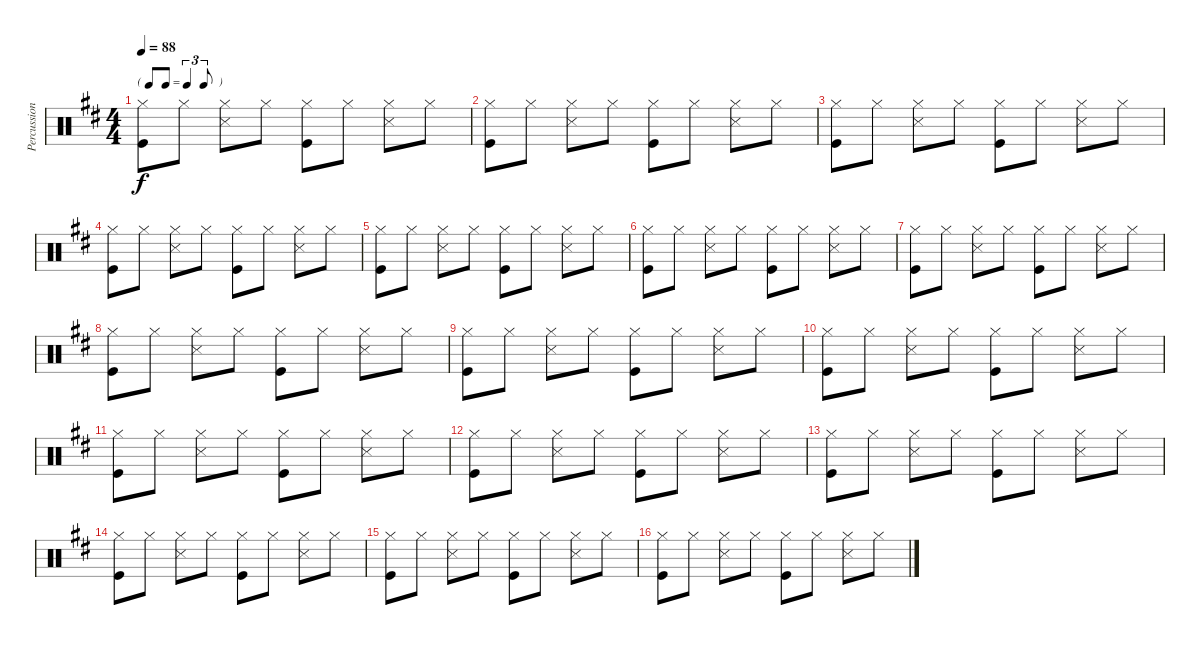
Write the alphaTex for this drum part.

\track ("Percussion" "Percussion") {instrument percussion}
\staff {score}
\articulation defaults
\ts (4 4)
\tf triplet8th
\tempo 88
\clef neutral
\ks d
("Hi-Hat (closed)" "Kick (hit)").8{dy f} "Hi-Hat (closed)".8 ("Hi-Hat (closed)" "Snare (side stick) 3").8 "Hi-Hat (closed)".8 ("Hi-Hat (closed)" "Kick (hit)").8 "Hi-Hat (closed)".8 ("Hi-Hat (closed)" "Snare (side stick) 3").8 "Hi-Hat (closed)".8 |
("Hi-Hat (closed)" "Kick (hit)").8 "Hi-Hat (closed)".8 ("Hi-Hat (closed)" "Snare (side stick) 3").8 "Hi-Hat (closed)".8 ("Hi-Hat (closed)" "Kick (hit)").8 "Hi-Hat (closed)".8 ("Hi-Hat (closed)" "Snare (side stick) 3").8 "Hi-Hat (closed)".8 |
("Hi-Hat (closed)" "Kick (hit)").8 "Hi-Hat (closed)".8 ("Hi-Hat (closed)" "Snare (side stick) 3").8 "Hi-Hat (closed)".8 ("Hi-Hat (closed)" "Kick (hit)").8 "Hi-Hat (closed)".8 ("Hi-Hat (closed)" "Snare (side stick) 3").8 "Hi-Hat (closed)".8 |
("Hi-Hat (closed)" "Kick (hit)").8 "Hi-Hat (closed)".8 ("Hi-Hat (closed)" "Snare (side stick) 3").8 "Hi-Hat (closed)".8 ("Hi-Hat (closed)" "Kick (hit)").8 "Hi-Hat (closed)".8 ("Hi-Hat (closed)" "Snare (side stick) 3").8 "Hi-Hat (closed)".8 |
("Hi-Hat (closed)" "Kick (hit)").8 "Hi-Hat (closed)".8 ("Hi-Hat (closed)" "Snare (side stick) 3").8 "Hi-Hat (closed)".8 ("Hi-Hat (closed)" "Kick (hit)").8 "Hi-Hat (closed)".8 ("Hi-Hat (closed)" "Snare (side stick) 3").8 "Hi-Hat (closed)".8 |
("Hi-Hat (closed)" "Kick (hit)").8 "Hi-Hat (closed)".8 ("Hi-Hat (closed)" "Snare (side stick) 3").8 "Hi-Hat (closed)".8 ("Hi-Hat (closed)" "Kick (hit)").8 "Hi-Hat (closed)".8 ("Hi-Hat (closed)" "Snare (side stick) 3").8 "Hi-Hat (closed)".8 |
("Hi-Hat (closed)" "Kick (hit)").8 "Hi-Hat (closed)".8 ("Hi-Hat (closed)" "Snare (side stick) 3").8 "Hi-Hat (closed)".8 ("Hi-Hat (closed)" "Kick (hit)").8 "Hi-Hat (closed)".8 ("Hi-Hat (closed)" "Snare (side stick) 3").8 "Hi-Hat (closed)".8 |
("Hi-Hat (closed)" "Kick (hit)").8 "Hi-Hat (closed)".8 ("Hi-Hat (closed)" "Snare (side stick) 3").8 "Hi-Hat (closed)".8 ("Hi-Hat (closed)" "Kick (hit)").8 "Hi-Hat (closed)".8 ("Hi-Hat (closed)" "Snare (side stick) 3").8 "Hi-Hat (closed)".8 |
("Hi-Hat (closed)" "Kick (hit)").8 "Hi-Hat (closed)".8 ("Hi-Hat (closed)" "Snare (side stick) 3").8 "Hi-Hat (closed)".8 ("Hi-Hat (closed)" "Kick (hit)").8 "Hi-Hat (closed)".8 ("Hi-Hat (closed)" "Snare (side stick) 3").8 "Hi-Hat (closed)".8 |
("Hi-Hat (closed)" "Kick (hit)").8 "Hi-Hat (closed)".8 ("Hi-Hat (closed)" "Snare (side stick) 3").8 "Hi-Hat (closed)".8 ("Hi-Hat (closed)" "Kick (hit)").8 "Hi-Hat (closed)".8 ("Hi-Hat (closed)" "Snare (side stick) 3").8 "Hi-Hat (closed)".8 |
("Hi-Hat (closed)" "Kick (hit)").8 "Hi-Hat (closed)".8 ("Hi-Hat (closed)" "Snare (side stick) 3").8 "Hi-Hat (closed)".8 ("Hi-Hat (closed)" "Kick (hit)").8 "Hi-Hat (closed)".8 ("Hi-Hat (closed)" "Snare (side stick) 3").8 "Hi-Hat (closed)".8 |
("Hi-Hat (closed)" "Kick (hit)").8 "Hi-Hat (closed)".8 ("Hi-Hat (closed)" "Snare (side stick) 3").8 "Hi-Hat (closed)".8 ("Hi-Hat (closed)" "Kick (hit)").8 "Hi-Hat (closed)".8 ("Hi-Hat (closed)" "Snare (side stick) 3").8 "Hi-Hat (closed)".8 |
("Hi-Hat (closed)" "Kick (hit)").8 "Hi-Hat (closed)".8 ("Hi-Hat (closed)" "Snare (side stick) 3").8 "Hi-Hat (closed)".8 ("Hi-Hat (closed)" "Kick (hit)").8 "Hi-Hat (closed)".8 ("Hi-Hat (closed)" "Snare (side stick) 3").8 "Hi-Hat (closed)".8 |
("Hi-Hat (closed)" "Kick (hit)").8 "Hi-Hat (closed)".8 ("Hi-Hat (closed)" "Snare (side stick) 3").8 "Hi-Hat (closed)".8 ("Hi-Hat (closed)" "Kick (hit)").8 "Hi-Hat (closed)".8 ("Hi-Hat (closed)" "Snare (side stick) 3").8 "Hi-Hat (closed)".8 |
("Hi-Hat (closed)" "Kick (hit)").8 "Hi-Hat (closed)".8 ("Hi-Hat (closed)" "Snare (side stick) 3").8 "Hi-Hat (closed)".8 ("Hi-Hat (closed)" "Kick (hit)").8 "Hi-Hat (closed)".8 ("Hi-Hat (closed)" "Snare (side stick) 3").8 "Hi-Hat (closed)".8 |
("Hi-Hat (closed)" "Kick (hit)").8 "Hi-Hat (closed)".8 ("Hi-Hat (closed)" "Snare (side stick) 3").8 "Hi-Hat (closed)".8 ("Hi-Hat (closed)" "Kick (hit)").8 "Hi-Hat (closed)".8 ("Hi-Hat (closed)" "Snare (side stick) 3").8 "Hi-Hat (closed)".8
